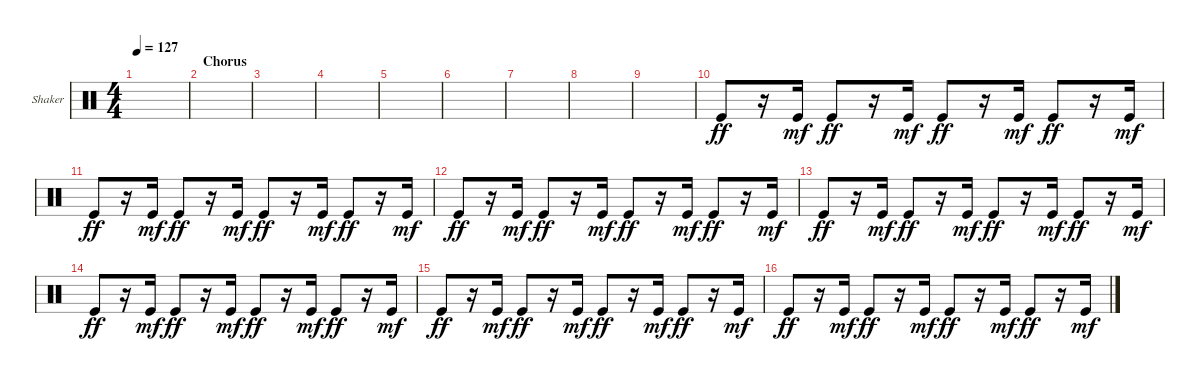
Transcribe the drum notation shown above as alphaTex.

\bracketExtendMode groupsimilarinstruments
\firstSystemTrackNameOrientation horizontal
\otherSystemsTrackNameOrientation horizontal
\track ("Shaker" "Shaker") {instrument percussion}
\staff {score}
\articulation defaults
\ts (4 4)
\tempo 127
\clef neutral
\ks c
|
\section ("" "Chorus")
|
|
|
|
|
|
|
|
"Kick (hit)".8{dy ff} r.16 "Kick (hit)".16{dy mf} "Kick (hit)".8{dy ff} r.16 "Kick (hit)".16{dy mf} "Kick (hit)".8{dy ff} r.16 "Kick (hit)".16{dy mf} "Kick (hit)".8{dy ff} r.16 "Kick (hit)".16{dy mf} |
"Kick (hit)".8{dy ff} r.16 "Kick (hit)".16{dy mf} "Kick (hit)".8{dy ff} r.16 "Kick (hit)".16{dy mf} "Kick (hit)".8{dy ff} r.16 "Kick (hit)".16{dy mf} "Kick (hit)".8{dy ff} r.16 "Kick (hit)".16{dy mf} |
"Kick (hit)".8{dy ff} r.16 "Kick (hit)".16{dy mf} "Kick (hit)".8{dy ff} r.16 "Kick (hit)".16{dy mf} "Kick (hit)".8{dy ff} r.16 "Kick (hit)".16{dy mf} "Kick (hit)".8{dy ff} r.16 "Kick (hit)".16{dy mf} |
"Kick (hit)".8{dy ff} r.16 "Kick (hit)".16{dy mf} "Kick (hit)".8{dy ff} r.16 "Kick (hit)".16{dy mf} "Kick (hit)".8{dy ff} r.16 "Kick (hit)".16{dy mf} "Kick (hit)".8{dy ff} r.16 "Kick (hit)".16{dy mf} |
"Kick (hit)".8{dy ff} r.16 "Kick (hit)".16{dy mf} "Kick (hit)".8{dy ff} r.16 "Kick (hit)".16{dy mf} "Kick (hit)".8{dy ff} r.16 "Kick (hit)".16{dy mf} "Kick (hit)".8{dy ff} r.16 "Kick (hit)".16{dy mf} |
"Kick (hit)".8{dy ff} r.16 "Kick (hit)".16{dy mf} "Kick (hit)".8{dy ff} r.16 "Kick (hit)".16{dy mf} "Kick (hit)".8{dy ff} r.16 "Kick (hit)".16{dy mf} "Kick (hit)".8{dy ff} r.16 "Kick (hit)".16{dy mf} |
"Kick (hit)".8{dy ff} r.16 "Kick (hit)".16{dy mf} "Kick (hit)".8{dy ff} r.16 "Kick (hit)".16{dy mf} "Kick (hit)".8{dy ff} r.16 "Kick (hit)".16{dy mf} "Kick (hit)".8{dy ff} r.16 "Kick (hit)".16{dy mf}
